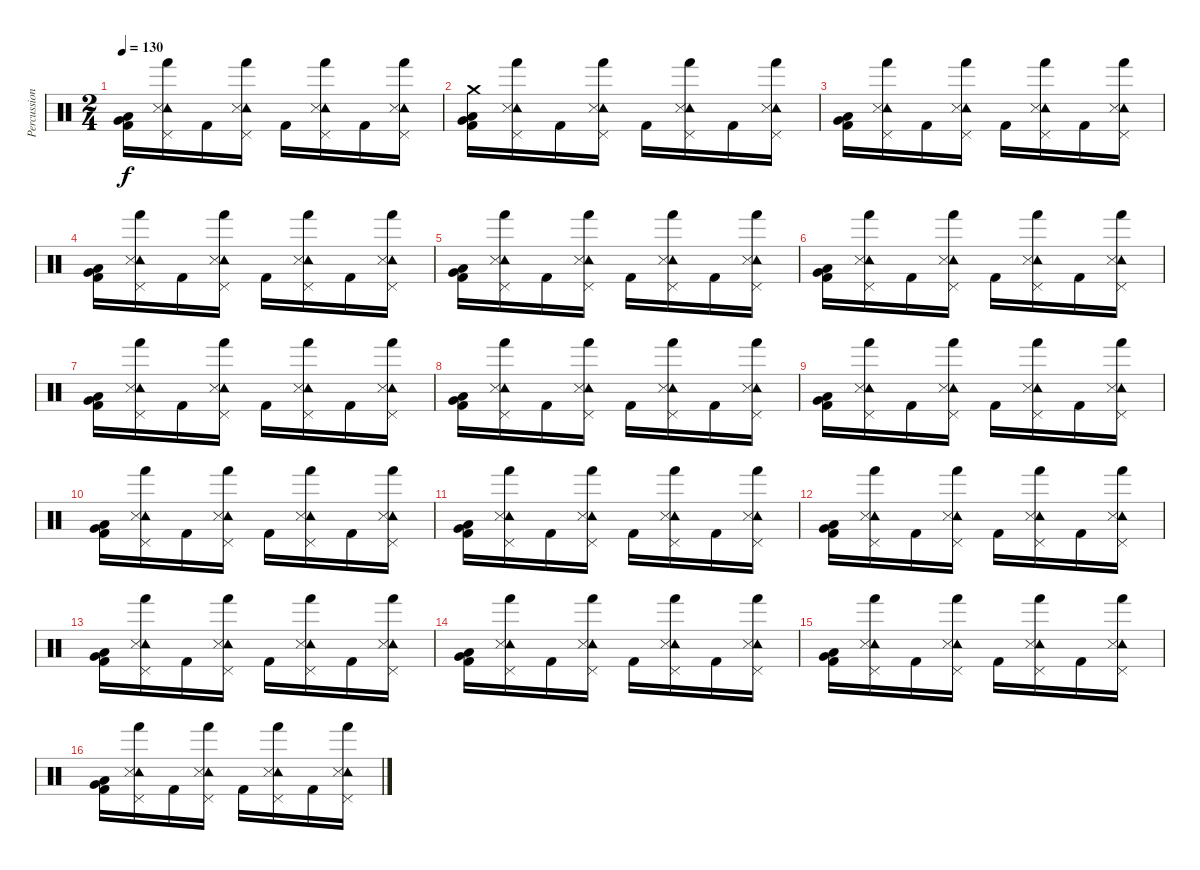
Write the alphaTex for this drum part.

\track ("Percussion" "Percussion") {instrument percussion}
\staff {score}
\articulation defaults
\ts (2 4)
\tempo 130
\clef neutral
\ks c
("Very Low Tom (hit)" "Low Tom (hit)" "Kick (hit) 2").16{dy f} ("Tambourine (hit)" "Snare (side stick) 3" "Pedal Hi-Hat (hit)" "Hand (hit)").16 "Kick (hit) 2".16 ("Tambourine (hit)" "Snare (side stick) 3" "Pedal Hi-Hat (hit)" "Hand (hit)").16 "Kick (hit) 2".16 ("Tambourine (hit)" "Snare (side stick) 3" "Pedal Hi-Hat (hit)" "Hand (hit)").16 "Kick (hit) 2".16 ("Tambourine (hit)" "Snare (side stick) 3" "Pedal Hi-Hat (hit)" "Hand (hit)").16 |
("Crash medium (hit)" "Very Low Tom (hit)" "Low Tom (hit)" "Kick (hit) 2").16 ("Tambourine (hit)" "Snare (side stick) 3" "Pedal Hi-Hat (hit)" "Hand (hit)").16 "Kick (hit) 2".16 ("Tambourine (hit)" "Snare (side stick) 3" "Pedal Hi-Hat (hit)" "Hand (hit)").16 "Kick (hit) 2".16 ("Tambourine (hit)" "Snare (side stick) 3" "Pedal Hi-Hat (hit)" "Hand (hit)").16 "Kick (hit) 2".16 ("Tambourine (hit)" "Snare (side stick) 3" "Pedal Hi-Hat (hit)" "Hand (hit)").16 |
("Very Low Tom (hit)" "Low Tom (hit)" "Kick (hit) 2").16 ("Tambourine (hit)" "Snare (side stick) 3" "Pedal Hi-Hat (hit)" "Hand (hit)").16 "Kick (hit) 2".16 ("Tambourine (hit)" "Snare (side stick) 3" "Pedal Hi-Hat (hit)" "Hand (hit)").16 "Kick (hit) 2".16 ("Tambourine (hit)" "Snare (side stick) 3" "Pedal Hi-Hat (hit)" "Hand (hit)").16 "Kick (hit) 2".16 ("Tambourine (hit)" "Snare (side stick) 3" "Pedal Hi-Hat (hit)" "Hand (hit)").16 |
("Very Low Tom (hit)" "Low Tom (hit)" "Kick (hit) 2").16 ("Tambourine (hit)" "Snare (side stick) 3" "Pedal Hi-Hat (hit)" "Hand (hit)").16 "Kick (hit) 2".16 ("Tambourine (hit)" "Snare (side stick) 3" "Pedal Hi-Hat (hit)" "Hand (hit)").16 "Kick (hit) 2".16 ("Tambourine (hit)" "Snare (side stick) 3" "Pedal Hi-Hat (hit)" "Hand (hit)").16 "Kick (hit) 2".16 ("Tambourine (hit)" "Snare (side stick) 3" "Pedal Hi-Hat (hit)" "Hand (hit)").16 |
("Very Low Tom (hit)" "Low Tom (hit)" "Kick (hit) 2").16 ("Tambourine (hit)" "Snare (side stick) 3" "Pedal Hi-Hat (hit)" "Hand (hit)").16 "Kick (hit) 2".16 ("Tambourine (hit)" "Snare (side stick) 3" "Pedal Hi-Hat (hit)" "Hand (hit)").16 "Kick (hit) 2".16 ("Tambourine (hit)" "Snare (side stick) 3" "Pedal Hi-Hat (hit)" "Hand (hit)").16 "Kick (hit) 2".16 ("Tambourine (hit)" "Snare (side stick) 3" "Pedal Hi-Hat (hit)" "Hand (hit)").16 |
("Very Low Tom (hit)" "Low Tom (hit)" "Kick (hit) 2").16 ("Tambourine (hit)" "Snare (side stick) 3" "Pedal Hi-Hat (hit)" "Hand (hit)").16 "Kick (hit) 2".16 ("Tambourine (hit)" "Snare (side stick) 3" "Pedal Hi-Hat (hit)" "Hand (hit)").16 "Kick (hit) 2".16 ("Tambourine (hit)" "Snare (side stick) 3" "Pedal Hi-Hat (hit)" "Hand (hit)").16 "Kick (hit) 2".16 ("Tambourine (hit)" "Snare (side stick) 3" "Pedal Hi-Hat (hit)" "Hand (hit)").16 |
("Very Low Tom (hit)" "Low Tom (hit)" "Kick (hit) 2").16 ("Tambourine (hit)" "Snare (side stick) 3" "Pedal Hi-Hat (hit)" "Hand (hit)").16 "Kick (hit) 2".16 ("Tambourine (hit)" "Snare (side stick) 3" "Pedal Hi-Hat (hit)" "Hand (hit)").16 "Kick (hit) 2".16 ("Tambourine (hit)" "Snare (side stick) 3" "Pedal Hi-Hat (hit)" "Hand (hit)").16 "Kick (hit) 2".16 ("Tambourine (hit)" "Snare (side stick) 3" "Pedal Hi-Hat (hit)" "Hand (hit)").16 |
("Very Low Tom (hit)" "Low Tom (hit)" "Kick (hit) 2").16 ("Tambourine (hit)" "Snare (side stick) 3" "Pedal Hi-Hat (hit)" "Hand (hit)").16 "Kick (hit) 2".16 ("Tambourine (hit)" "Snare (side stick) 3" "Pedal Hi-Hat (hit)" "Hand (hit)").16 "Kick (hit) 2".16 ("Tambourine (hit)" "Snare (side stick) 3" "Pedal Hi-Hat (hit)" "Hand (hit)").16 "Kick (hit) 2".16 ("Tambourine (hit)" "Snare (side stick) 3" "Pedal Hi-Hat (hit)" "Hand (hit)").16 |
("Very Low Tom (hit)" "Low Tom (hit)" "Kick (hit) 2").16 ("Tambourine (hit)" "Snare (side stick) 3" "Pedal Hi-Hat (hit)" "Hand (hit)").16 "Kick (hit) 2".16 ("Tambourine (hit)" "Snare (side stick) 3" "Pedal Hi-Hat (hit)" "Hand (hit)").16 "Kick (hit) 2".16 ("Tambourine (hit)" "Snare (side stick) 3" "Pedal Hi-Hat (hit)" "Hand (hit)").16 "Kick (hit) 2".16 ("Tambourine (hit)" "Snare (side stick) 3" "Pedal Hi-Hat (hit)" "Hand (hit)").16 |
("Very Low Tom (hit)" "Low Tom (hit)" "Kick (hit) 2").16 ("Tambourine (hit)" "Snare (side stick) 3" "Pedal Hi-Hat (hit)" "Hand (hit)").16 "Kick (hit) 2".16 ("Tambourine (hit)" "Snare (side stick) 3" "Pedal Hi-Hat (hit)" "Hand (hit)").16 "Kick (hit) 2".16 ("Tambourine (hit)" "Snare (side stick) 3" "Pedal Hi-Hat (hit)" "Hand (hit)").16 "Kick (hit) 2".16 ("Tambourine (hit)" "Snare (side stick) 3" "Pedal Hi-Hat (hit)" "Hand (hit)").16 |
("Very Low Tom (hit)" "Low Tom (hit)" "Kick (hit) 2").16 ("Tambourine (hit)" "Snare (side stick) 3" "Pedal Hi-Hat (hit)" "Hand (hit)").16 "Kick (hit) 2".16 ("Tambourine (hit)" "Snare (side stick) 3" "Pedal Hi-Hat (hit)" "Hand (hit)").16 "Kick (hit) 2".16 ("Tambourine (hit)" "Snare (side stick) 3" "Pedal Hi-Hat (hit)" "Hand (hit)").16 "Kick (hit) 2".16 ("Tambourine (hit)" "Snare (side stick) 3" "Pedal Hi-Hat (hit)" "Hand (hit)").16 |
("Very Low Tom (hit)" "Low Tom (hit)" "Kick (hit) 2").16 ("Tambourine (hit)" "Snare (side stick) 3" "Pedal Hi-Hat (hit)" "Hand (hit)").16 "Kick (hit) 2".16 ("Tambourine (hit)" "Snare (side stick) 3" "Pedal Hi-Hat (hit)" "Hand (hit)").16 "Kick (hit) 2".16 ("Tambourine (hit)" "Snare (side stick) 3" "Pedal Hi-Hat (hit)" "Hand (hit)").16 "Kick (hit) 2".16 ("Tambourine (hit)" "Snare (side stick) 3" "Pedal Hi-Hat (hit)" "Hand (hit)").16 |
("Very Low Tom (hit)" "Low Tom (hit)" "Kick (hit) 2").16 ("Tambourine (hit)" "Snare (side stick) 3" "Pedal Hi-Hat (hit)" "Hand (hit)").16 "Kick (hit) 2".16 ("Tambourine (hit)" "Snare (side stick) 3" "Pedal Hi-Hat (hit)" "Hand (hit)").16 "Kick (hit) 2".16 ("Tambourine (hit)" "Snare (side stick) 3" "Pedal Hi-Hat (hit)" "Hand (hit)").16 "Kick (hit) 2".16 ("Tambourine (hit)" "Snare (side stick) 3" "Pedal Hi-Hat (hit)" "Hand (hit)").16 |
("Very Low Tom (hit)" "Low Tom (hit)" "Kick (hit) 2").16 ("Tambourine (hit)" "Snare (side stick) 3" "Pedal Hi-Hat (hit)" "Hand (hit)").16 "Kick (hit) 2".16 ("Tambourine (hit)" "Snare (side stick) 3" "Pedal Hi-Hat (hit)" "Hand (hit)").16 "Kick (hit) 2".16 ("Tambourine (hit)" "Snare (side stick) 3" "Pedal Hi-Hat (hit)" "Hand (hit)").16 "Kick (hit) 2".16 ("Tambourine (hit)" "Snare (side stick) 3" "Pedal Hi-Hat (hit)" "Hand (hit)").16 |
("Very Low Tom (hit)" "Low Tom (hit)" "Kick (hit) 2").16 ("Tambourine (hit)" "Snare (side stick) 3" "Pedal Hi-Hat (hit)" "Hand (hit)").16 "Kick (hit) 2".16 ("Tambourine (hit)" "Snare (side stick) 3" "Pedal Hi-Hat (hit)" "Hand (hit)").16 "Kick (hit) 2".16 ("Tambourine (hit)" "Snare (side stick) 3" "Pedal Hi-Hat (hit)" "Hand (hit)").16 "Kick (hit) 2".16 ("Tambourine (hit)" "Snare (side stick) 3" "Pedal Hi-Hat (hit)" "Hand (hit)").16 |
("Very Low Tom (hit)" "Low Tom (hit)" "Kick (hit) 2").16 ("Tambourine (hit)" "Snare (side stick) 3" "Pedal Hi-Hat (hit)" "Hand (hit)").16 "Kick (hit) 2".16 ("Tambourine (hit)" "Snare (side stick) 3" "Pedal Hi-Hat (hit)" "Hand (hit)").16 "Kick (hit) 2".16 ("Tambourine (hit)" "Snare (side stick) 3" "Pedal Hi-Hat (hit)" "Hand (hit)").16 "Kick (hit) 2".16 ("Tambourine (hit)" "Snare (side stick) 3" "Pedal Hi-Hat (hit)" "Hand (hit)").16
